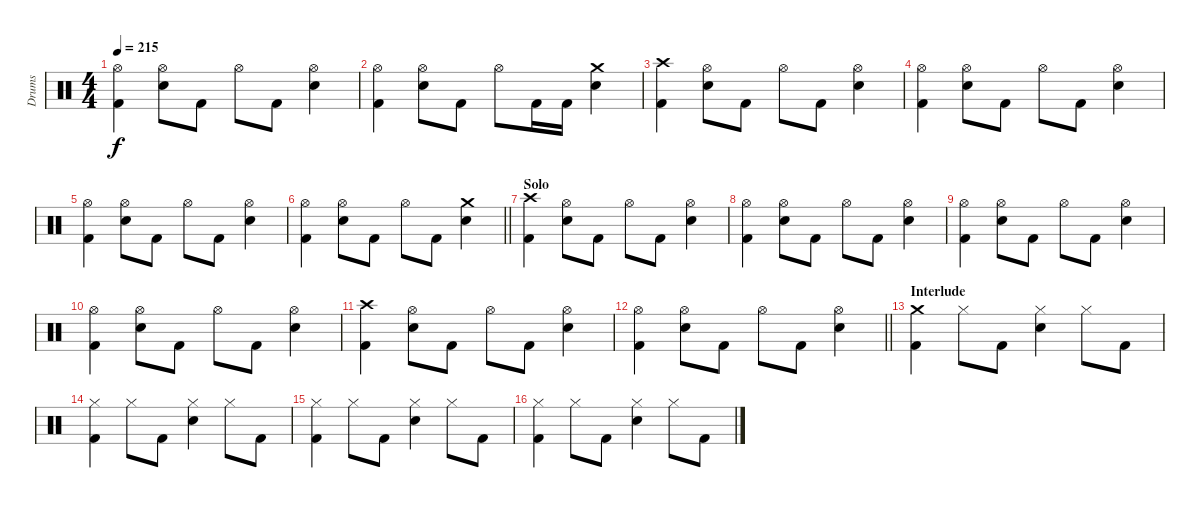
\track ("Drums" "Drums") {instrument percussion}
\staff {score}
\articulation defaults
\ts (4 4)
\tempo 215
\clef neutral
\ks c
("Hi-Hat (open)" "Kick (hit) 2").4{dy f} ("Hi-Hat (open)" "Electric Snare (hit)").8 "Kick (hit) 2".8 "Hi-Hat (open)".8 "Kick (hit) 2".8 ("Hi-Hat (open)" "Electric Snare (hit)").4 |
("Hi-Hat (open)" "Kick (hit) 2").4 ("Hi-Hat (open)" "Electric Snare (hit)").8 "Kick (hit) 2".8 "Hi-Hat (open)".8 "Kick (hit) 2".16 "Kick (hit) 2".16 ("Crash medium (hit)" "Electric Snare (hit)").4 |
("Crash high (hit)" "Kick (hit) 2").4 ("Hi-Hat (open)" "Electric Snare (hit)").8 "Kick (hit) 2".8 "Hi-Hat (open)".8 "Kick (hit) 2".8 ("Hi-Hat (open)" "Electric Snare (hit)").4 |
("Hi-Hat (open)" "Kick (hit) 2").4 ("Hi-Hat (open)" "Electric Snare (hit)").8 "Kick (hit) 2".8 "Hi-Hat (open)".8 "Kick (hit) 2".8 ("Hi-Hat (open)" "Electric Snare (hit)").4 |
("Hi-Hat (open)" "Kick (hit) 2").4 ("Hi-Hat (open)" "Electric Snare (hit)").8 "Kick (hit) 2".8 "Hi-Hat (open)".8 "Kick (hit) 2".8 ("Hi-Hat (open)" "Electric Snare (hit)").4 |
\barLineRight lightlight
("Hi-Hat (open)" "Kick (hit) 2").4 ("Hi-Hat (open)" "Electric Snare (hit)").8 "Kick (hit) 2".8 "Hi-Hat (open)".8 "Kick (hit) 2".8 ("Crash medium (hit)" "Electric Snare (hit)").4 |
\section ("" "Solo")
("Crash high (hit)" "Kick (hit) 2").4 ("Hi-Hat (open)" "Electric Snare (hit)").8 "Kick (hit) 2".8 "Hi-Hat (open)".8 "Kick (hit) 2".8 ("Hi-Hat (open)" "Electric Snare (hit)").4 |
("Hi-Hat (open)" "Kick (hit) 2").4 ("Hi-Hat (open)" "Electric Snare (hit)").8 "Kick (hit) 2".8 "Hi-Hat (open)".8 "Kick (hit) 2".8 ("Hi-Hat (open)" "Electric Snare (hit)").4 |
("Hi-Hat (open)" "Kick (hit) 2").4 ("Hi-Hat (open)" "Electric Snare (hit)").8 "Kick (hit) 2".8 "Hi-Hat (open)".8 "Kick (hit) 2".8 ("Hi-Hat (open)" "Electric Snare (hit)").4 |
("Hi-Hat (open)" "Kick (hit) 2").4 ("Hi-Hat (open)" "Electric Snare (hit)").8 "Kick (hit) 2".8 "Hi-Hat (open)".8 "Kick (hit) 2".8 ("Hi-Hat (open)" "Electric Snare (hit)").4 |
("Crash high (hit)" "Kick (hit) 2").4 ("Hi-Hat (open)" "Electric Snare (hit)").8 "Kick (hit) 2".8 "Hi-Hat (open)".8 "Kick (hit) 2".8 ("Hi-Hat (open)" "Electric Snare (hit)").4 |
\barLineRight lightlight
("Hi-Hat (open)" "Kick (hit) 2").4 ("Hi-Hat (open)" "Electric Snare (hit)").8 "Kick (hit) 2".8 "Hi-Hat (open)".8 "Kick (hit) 2".8 ("Hi-Hat (open)" "Electric Snare (hit)").4 |
\section ("" "Interlude")
("Crash medium (hit)" "Kick (hit) 2").4{volume 9 balance 13} "Hi-Hat (closed)".8 "Kick (hit) 2".8 ("Hi-Hat (closed)" "Electric Snare (hit)").4 "Hi-Hat (closed)".8 "Kick (hit) 2".8 |
("Hi-Hat (closed)" "Kick (hit) 2").4 "Hi-Hat (closed)".8 "Kick (hit) 2".8 ("Hi-Hat (closed)" "Electric Snare (hit)").4 "Hi-Hat (closed)".8 "Kick (hit) 2".8 |
("Hi-Hat (closed)" "Kick (hit) 2").4 "Hi-Hat (closed)".8 "Kick (hit) 2".8 ("Hi-Hat (closed)" "Electric Snare (hit)").4 "Hi-Hat (closed)".8 "Kick (hit) 2".8 |
("Hi-Hat (closed)" "Kick (hit) 2").4 "Hi-Hat (closed)".8 "Kick (hit) 2".8 ("Hi-Hat (closed)" "Electric Snare (hit)").4 "Hi-Hat (closed)".8 "Kick (hit) 2".8
